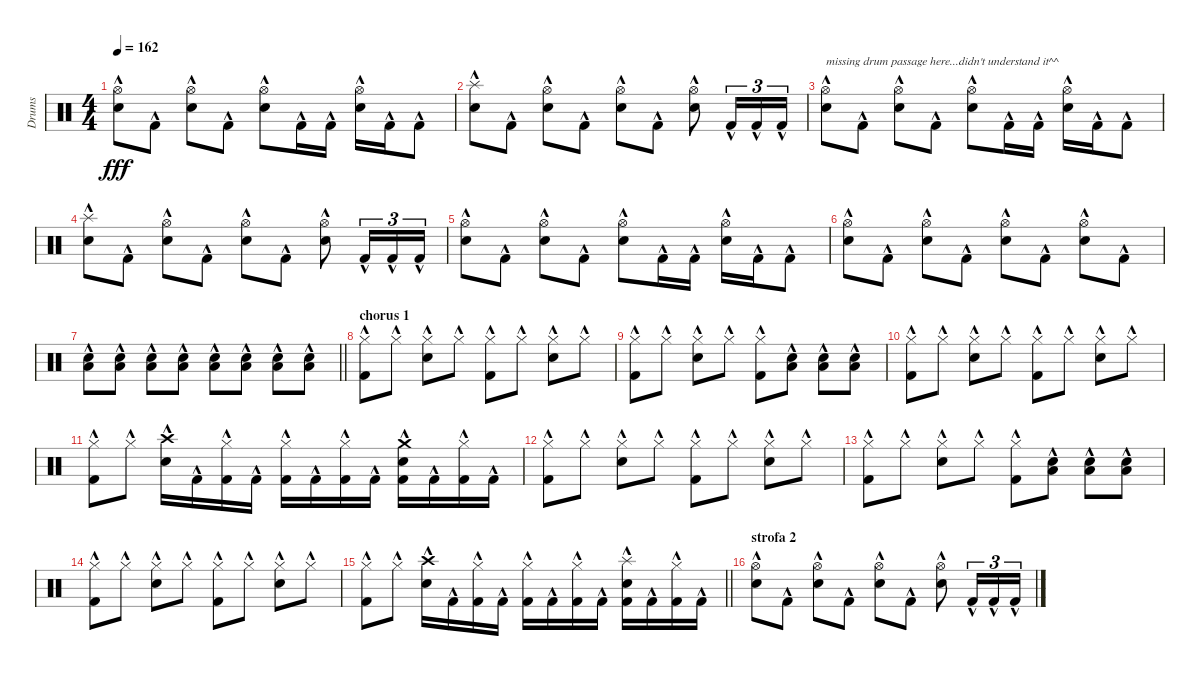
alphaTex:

\track ("Drums" "Drums") {instrument percussion}
\staff {score}
\articulation defaults
\ts (4 4)
\tempo 162
\clef neutral
\ks c
("Hi-Hat (open)"{hac} "Electric Snare (hit)"{hac}).8{dy fff} "Kick (hit) 2"{hac}.8 ("Hi-Hat (open)"{hac} "Electric Snare (hit)"{hac}).8 "Kick (hit) 2"{hac}.8 ("Hi-Hat (open)"{hac} "Electric Snare (hit)"{hac}).8 "Kick (hit) 2"{hac}.16 "Kick (hit) 2"{hac}.16 ("Hi-Hat (open)"{hac} "Electric Snare (hit)"{hac}).16 "Kick (hit) 2"{hac}.16 "Kick (hit) 2"{hac}.8 |
("Electric Snare (hit)"{hac} "Splash (hit)"{hac}).8 "Kick (hit) 2"{hac}.8 ("Hi-Hat (open)"{hac} "Electric Snare (hit)"{hac}).8 "Kick (hit) 2"{hac}.8 ("Hi-Hat (open)"{hac} "Electric Snare (hit)"{hac}).8 "Kick (hit) 2"{hac}.8 ("Hi-Hat (open)"{hac} "Electric Snare (hit)"{hac}).8 "Kick (hit) 2"{hac}.16{tu (3 2)} "Kick (hit) 2"{hac}.16{tu (3 2)} "Kick (hit) 2"{hac}.16{tu (3 2)} |
("Hi-Hat (open)"{hac} "Electric Snare (hit)"{hac}).8{txt "missing drum passage here...didn't understand it^^"} "Kick (hit) 2"{hac}.8 ("Hi-Hat (open)"{hac} "Electric Snare (hit)"{hac}).8 "Kick (hit) 2"{hac}.8 ("Hi-Hat (open)"{hac} "Electric Snare (hit)"{hac}).8 "Kick (hit) 2"{hac}.16 "Kick (hit) 2"{hac}.16 ("Hi-Hat (open)"{hac} "Electric Snare (hit)"{hac}).16 "Kick (hit) 2"{hac}.16 "Kick (hit) 2"{hac}.8 |
("Electric Snare (hit)"{hac} "Splash (hit)"{hac}).8 "Kick (hit) 2"{hac}.8 ("Hi-Hat (open)"{hac} "Electric Snare (hit)"{hac}).8 "Kick (hit) 2"{hac}.8 ("Hi-Hat (open)"{hac} "Electric Snare (hit)"{hac}).8 "Kick (hit) 2"{hac}.8 ("Hi-Hat (open)"{hac} "Electric Snare (hit)"{hac}).8 "Kick (hit) 2"{hac}.16{tu (3 2)} "Kick (hit) 2"{hac}.16{tu (3 2)} "Kick (hit) 2"{hac}.16{tu (3 2)} |
("Hi-Hat (open)"{hac} "Electric Snare (hit)"{hac}).8 "Kick (hit) 2"{hac}.8 ("Hi-Hat (open)"{hac} "Electric Snare (hit)"{hac}).8 "Kick (hit) 2"{hac}.8 ("Hi-Hat (open)"{hac} "Electric Snare (hit)"{hac}).8 "Kick (hit) 2"{hac}.16 "Kick (hit) 2"{hac}.16 ("Hi-Hat (open)"{hac} "Electric Snare (hit)"{hac}).16 "Kick (hit) 2"{hac}.16 "Kick (hit) 2"{hac}.8 |
("Hi-Hat (open)"{hac} "Electric Snare (hit)"{hac}).8 "Kick (hit) 2"{hac}.8 ("Hi-Hat (open)"{hac} "Electric Snare (hit)"{hac}).8 "Kick (hit) 2"{hac}.8 ("Hi-Hat (open)"{hac} "Electric Snare (hit)"{hac}).8 "Kick (hit) 2"{hac}.8 ("Hi-Hat (open)"{hac} "Electric Snare (hit)"{hac}).8 "Kick (hit) 2"{hac}.8 |
\barLineRight lightlight
("Electric Snare (hit)"{hac} "Low Floor Tom (hit)"{hac}).8 ("Electric Snare (hit)"{hac} "Low Floor Tom (hit)"{hac}).8 ("Electric Snare (hit)"{hac} "Low Floor Tom (hit)"{hac}).8 ("Electric Snare (hit)"{hac} "Low Floor Tom (hit)"{hac}).8 ("Electric Snare (hit)"{hac} "Low Floor Tom (hit)"{hac}).8 ("Electric Snare (hit)"{hac} "Low Floor Tom (hit)"{hac}).8 ("Electric Snare (hit)"{hac} "Low Floor Tom (hit)"{hac}).8 ("Electric Snare (hit)"{hac} "Low Floor Tom (hit)"{hac}).8 |
\section ("" "chorus 1")
("Hi-Hat (closed)"{hac} "Kick (hit) 2"{hac}).8 "Hi-Hat (closed)"{hac}.8 ("Hi-Hat (closed)"{hac} "Electric Snare (hit)"{hac}).8 "Hi-Hat (closed)"{hac}.8 ("Hi-Hat (closed)"{hac} "Kick (hit) 2"{hac}).8 "Hi-Hat (closed)"{hac}.8 ("Hi-Hat (closed)"{hac} "Electric Snare (hit)"{hac}).8 "Hi-Hat (closed)"{hac}.8 |
("Hi-Hat (closed)"{hac} "Kick (hit) 2"{hac}).8 "Hi-Hat (closed)"{hac}.8 ("Hi-Hat (closed)"{hac} "Electric Snare (hit)"{hac}).8 "Hi-Hat (closed)"{hac}.8 ("Hi-Hat (closed)"{hac} "Kick (hit) 2"{hac}).8 ("Electric Snare (hit)"{hac} "Low Floor Tom (hit)"{hac}).8 ("Electric Snare (hit)"{hac} "Low Floor Tom (hit)"{hac}).8 ("Electric Snare (hit)"{hac} "Low Floor Tom (hit)"{hac}).8 |
("Hi-Hat (closed)"{hac} "Kick (hit) 2"{hac}).8 "Hi-Hat (closed)"{hac}.8 ("Hi-Hat (closed)"{hac} "Electric Snare (hit)"{hac}).8 "Hi-Hat (closed)"{hac}.8 ("Hi-Hat (closed)"{hac} "Kick (hit) 2"{hac}).8 "Hi-Hat (closed)"{hac}.8 ("Hi-Hat (closed)"{hac} "Electric Snare (hit)"{hac}).8 "Hi-Hat (closed)"{hac}.8 |
("Hi-Hat (closed)"{hac} "Kick (hit) 2"{hac}).8 "Hi-Hat (closed)"{hac}.8 ("Electric Snare (hit)"{hac} "Crash high (hit)"{hac}).16 "Kick (hit) 2"{hac}.16 ("Hi-Hat (closed)"{hac} "Kick (hit) 2"{hac}).16 "Kick (hit) 2"{hac}.16 ("Hi-Hat (closed)"{hac} "Kick (hit) 2"{hac}).16 "Kick (hit) 2"{hac}.16 ("Hi-Hat (closed)"{hac} "Kick (hit) 2"{hac}).16 "Kick (hit) 2"{hac}.16 ("Kick (hit) 2"{hac} "Electric Snare (hit)"{hac} "Crash medium (hit)"{hac}).16 "Kick (hit) 2"{hac}.16 ("Hi-Hat (closed)"{hac} "Kick (hit) 2"{hac}).16 "Kick (hit) 2"{hac}.16 |
("Hi-Hat (closed)"{hac} "Kick (hit) 2"{hac}).8 "Hi-Hat (closed)"{hac}.8 ("Hi-Hat (closed)"{hac} "Electric Snare (hit)"{hac}).8 "Hi-Hat (closed)"{hac}.8 ("Hi-Hat (closed)"{hac} "Kick (hit) 2"{hac}).8 "Hi-Hat (closed)"{hac}.8 ("Hi-Hat (closed)"{hac} "Electric Snare (hit)"{hac}).8 "Hi-Hat (closed)"{hac}.8 |
("Hi-Hat (closed)"{hac} "Kick (hit) 2"{hac}).8 "Hi-Hat (closed)"{hac}.8 ("Hi-Hat (closed)"{hac} "Electric Snare (hit)"{hac}).8 "Hi-Hat (closed)"{hac}.8 ("Hi-Hat (closed)"{hac} "Kick (hit) 2"{hac}).8 ("Electric Snare (hit)"{hac} "Low Floor Tom (hit)"{hac}).8 ("Electric Snare (hit)"{hac} "Low Floor Tom (hit)"{hac}).8 ("Electric Snare (hit)"{hac} "Low Floor Tom (hit)"{hac}).8 |
("Hi-Hat (closed)"{hac} "Kick (hit) 2"{hac}).8 "Hi-Hat (closed)"{hac}.8 ("Hi-Hat (closed)"{hac} "Electric Snare (hit)"{hac}).8 "Hi-Hat (closed)"{hac}.8 ("Hi-Hat (closed)"{hac} "Kick (hit) 2"{hac}).8 "Hi-Hat (closed)"{hac}.8 ("Hi-Hat (closed)"{hac} "Electric Snare (hit)"{hac}).8 "Hi-Hat (closed)"{hac}.8 |
\barLineRight lightlight
("Hi-Hat (closed)"{hac} "Kick (hit) 2"{hac}).8 "Hi-Hat (closed)"{hac}.8 ("Electric Snare (hit)"{hac} "Crash high (hit)"{hac}).16 "Kick (hit) 2"{hac}.16 ("Hi-Hat (closed)"{hac} "Kick (hit) 2"{hac}).16 "Kick (hit) 2"{hac}.16 ("Hi-Hat (closed)"{hac} "Kick (hit) 2"{hac}).16 "Kick (hit) 2"{hac}.16 ("Hi-Hat (closed)"{hac} "Kick (hit) 2"{hac}).16 "Kick (hit) 2"{hac}.16 ("Kick (hit) 2"{hac} "Electric Snare (hit)"{hac} "Splash (hit)"{hac}).16 "Kick (hit) 2"{hac}.16 ("Hi-Hat (closed)"{hac} "Kick (hit) 2"{hac}).16 "Kick (hit) 2"{hac}.16 |
\section ("" "strofa 2")
("Hi-Hat (open)"{hac} "Electric Snare (hit)"{hac}).8 "Kick (hit) 2"{hac}.8 ("Hi-Hat (open)"{hac} "Electric Snare (hit)"{hac}).8 "Kick (hit) 2"{hac}.8 ("Hi-Hat (open)"{hac} "Electric Snare (hit)"{hac}).8 "Kick (hit) 2"{hac}.8 ("Hi-Hat (open)"{hac} "Electric Snare (hit)"{hac}).8 "Kick (hit) 2"{hac}.16{tu (3 2)} "Kick (hit) 2"{hac}.16{tu (3 2)} "Kick (hit) 2"{hac}.16{tu (3 2)}
